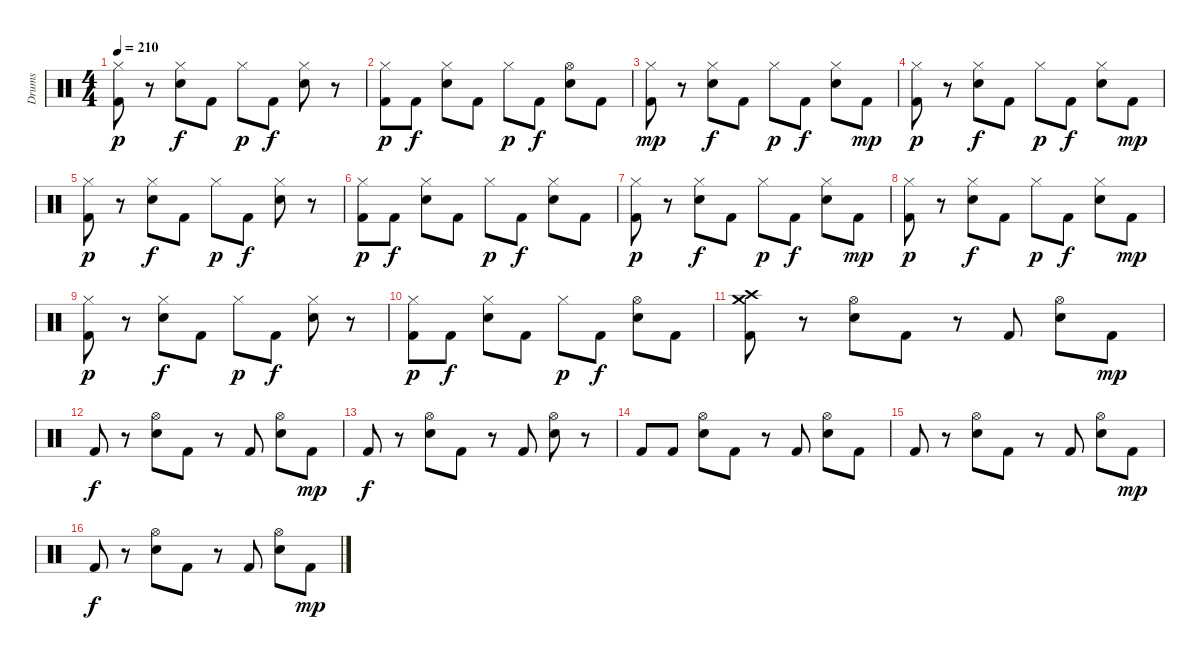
\track ("Drums" "Drums") {instrument percussion}
\staff {score}
\articulation defaults
\ts (4 4)
\tempo 210
\clef neutral
\ks c
("Hi-Hat (closed)" "Kick (hit) 2").8{dy p} r.8 ("Hi-Hat (closed)" "Electric Snare (hit)").8{dy f} "Kick (hit) 2".8 "Hi-Hat (closed)".8{dy p} "Kick (hit) 2".8{dy f} ("Hi-Hat (closed)" "Electric Snare (hit)").8 r.8 |
("Hi-Hat (closed)" "Kick (hit) 2").8{dy p} "Kick (hit) 2".8{dy f} ("Hi-Hat (closed)" "Electric Snare (hit)").8 "Kick (hit) 2".8 "Hi-Hat (closed)".8{dy p} "Kick (hit) 2".8{dy f} ("Hi-Hat (open)" "Electric Snare (hit)").8 "Kick (hit) 2".8 |
("Hi-Hat (closed)" "Kick (hit) 2").8{dy mp} r.8 ("Hi-Hat (closed)" "Electric Snare (hit)").8{dy f} "Kick (hit) 2".8 "Hi-Hat (closed)".8{dy p} "Kick (hit) 2".8{dy f} ("Hi-Hat (closed)" "Electric Snare (hit)").8 "Kick (hit) 2".8{dy mp} |
("Hi-Hat (closed)" "Kick (hit) 2").8{dy p} r.8 ("Hi-Hat (closed)" "Electric Snare (hit)").8{dy f} "Kick (hit) 2".8 "Hi-Hat (closed)".8{dy p} "Kick (hit) 2".8{dy f} ("Hi-Hat (closed)" "Electric Snare (hit)").8 "Kick (hit) 2".8{dy mp} |
("Hi-Hat (closed)" "Kick (hit) 2").8{dy p} r.8 ("Hi-Hat (closed)" "Electric Snare (hit)").8{dy f} "Kick (hit) 2".8 "Hi-Hat (closed)".8{dy p} "Kick (hit) 2".8{dy f} ("Hi-Hat (closed)" "Electric Snare (hit)").8 r.8 |
("Hi-Hat (closed)" "Kick (hit) 2").8{dy p} "Kick (hit) 2".8{dy f} ("Hi-Hat (closed)" "Electric Snare (hit)").8 "Kick (hit) 2".8 "Hi-Hat (closed)".8{dy p} "Kick (hit) 2".8{dy f} ("Hi-Hat (closed)" "Electric Snare (hit)").8 "Kick (hit) 2".8 |
("Hi-Hat (closed)" "Kick (hit) 2").8{dy p} r.8 ("Hi-Hat (closed)" "Electric Snare (hit)").8{dy f} "Kick (hit) 2".8 "Hi-Hat (closed)".8{dy p} "Kick (hit) 2".8{dy f} ("Hi-Hat (closed)" "Electric Snare (hit)").8 "Kick (hit) 2".8{dy mp} |
("Hi-Hat (closed)" "Kick (hit) 2").8{dy p} r.8 ("Hi-Hat (closed)" "Electric Snare (hit)").8{dy f} "Kick (hit) 2".8 "Hi-Hat (closed)".8{dy p} "Kick (hit) 2".8{dy f} ("Hi-Hat (closed)" "Electric Snare (hit)").8 "Kick (hit) 2".8{dy mp} |
("Hi-Hat (closed)" "Kick (hit) 2").8{dy p} r.8 ("Hi-Hat (closed)" "Electric Snare (hit)").8{dy f} "Kick (hit) 2".8 "Hi-Hat (closed)".8{dy p} "Kick (hit) 2".8{dy f} ("Hi-Hat (closed)" "Electric Snare (hit)").8 r.8 |
("Hi-Hat (closed)" "Kick (hit) 2").8{dy p} "Kick (hit) 2".8{dy f} ("Hi-Hat (closed)" "Electric Snare (hit)").8 "Kick (hit) 2".8 "Hi-Hat (closed)".8{dy p} "Kick (hit) 2".8{dy f} ("Hi-Hat (open)" "Electric Snare (hit)").8 "Kick (hit) 2".8 |
("Crash high (hit)" "Crash medium (hit)" "Kick (hit) 2").8 r.8 ("Hi-Hat (open)" "Electric Snare (hit)").8 "Kick (hit) 2".8 r.8 "Kick (hit) 2".8 ("Hi-Hat (open)" "Electric Snare (hit)").8 "Kick (hit) 2".8{dy mp} |
"Kick (hit) 2".8{dy f} r.8 ("Hi-Hat (open)" "Electric Snare (hit)").8 "Kick (hit) 2".8 r.8 "Kick (hit) 2".8 ("Hi-Hat (open)" "Electric Snare (hit)").8 "Kick (hit) 2".8{dy mp} |
"Kick (hit) 2".8{dy f} r.8 ("Hi-Hat (open)" "Electric Snare (hit)").8 "Kick (hit) 2".8 r.8 "Kick (hit) 2".8 ("Hi-Hat (open)" "Electric Snare (hit)").8 r.8 |
"Kick (hit) 2".8 "Kick (hit) 2".8 ("Hi-Hat (open)" "Electric Snare (hit)").8 "Kick (hit) 2".8 r.8 "Kick (hit) 2".8 ("Hi-Hat (open)" "Electric Snare (hit)").8 "Kick (hit) 2".8 |
"Kick (hit) 2".8 r.8 ("Hi-Hat (open)" "Electric Snare (hit)").8 "Kick (hit) 2".8 r.8 "Kick (hit) 2".8 ("Hi-Hat (open)" "Electric Snare (hit)").8 "Kick (hit) 2".8{dy mp} |
"Kick (hit) 2".8{dy f} r.8 ("Hi-Hat (open)" "Electric Snare (hit)").8 "Kick (hit) 2".8 r.8 "Kick (hit) 2".8 ("Hi-Hat (open)" "Electric Snare (hit)").8 "Kick (hit) 2".8{dy mp}
